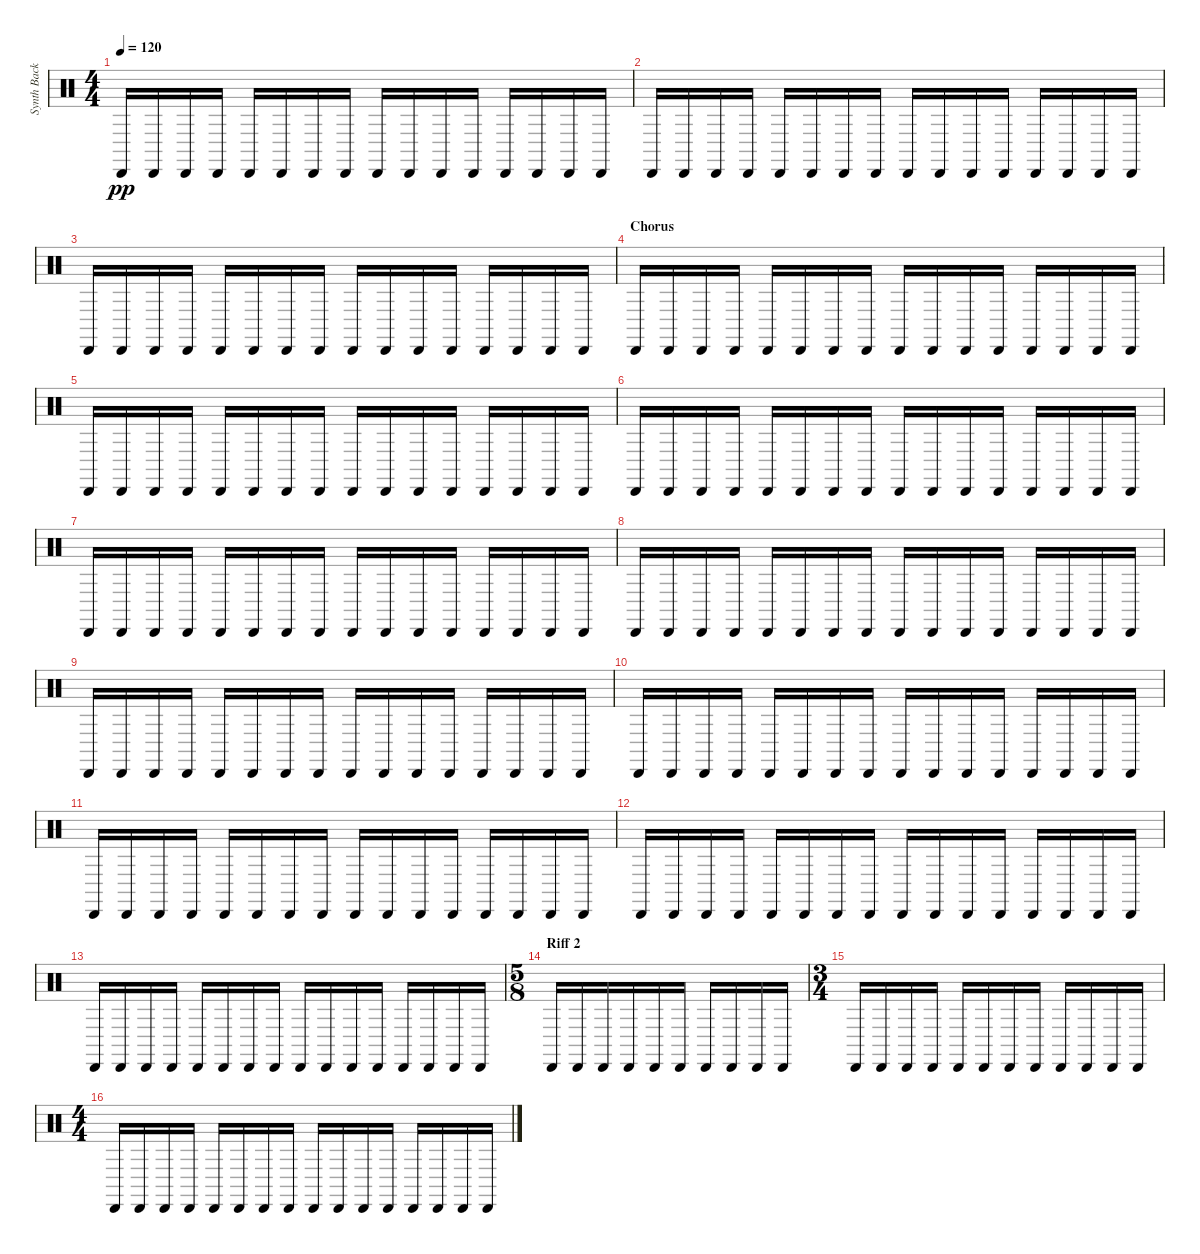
\track ("Synth Background Rhythm" "Synth Back") {instrument percussion}
\staff {score}
\articulation defaults
\ts (4 4)
\tempo 120
\clef neutral
\ks c "Cabasa (hit)".16{dy pp} "Cabasa (hit)".16 "Cabasa (hit)".16 "Cabasa (hit)".16 "Cabasa (hit)".16 "Cabasa (hit)".16 "Cabasa (hit)".16 "Cabasa (hit)".16 "Cabasa (hit)".16 "Cabasa (hit)".16 "Cabasa (hit)".16 "Cabasa (hit)".16 "Cabasa (hit)".16 "Cabasa (hit)".16 "Cabasa (hit)".16 "Cabasa (hit)".16
|
"Cabasa (hit)".16 "Cabasa (hit)".16 "Cabasa (hit)".16 "Cabasa (hit)".16 "Cabasa (hit)".16 "Cabasa (hit)".16 "Cabasa (hit)".16 "Cabasa (hit)".16 "Cabasa (hit)".16 "Cabasa (hit)".16 "Cabasa (hit)".16 "Cabasa (hit)".16 "Cabasa (hit)".16 "Cabasa (hit)".16 "Cabasa (hit)".16 "Cabasa (hit)".16 |
"Cabasa (hit)".16 "Cabasa (hit)".16 "Cabasa (hit)".16 "Cabasa (hit)".16 "Cabasa (hit)".16 "Cabasa (hit)".16 "Cabasa (hit)".16 "Cabasa (hit)".16 "Cabasa (hit)".16 "Cabasa (hit)".16 "Cabasa (hit)".16 "Cabasa (hit)".16 "Cabasa (hit)".16 "Cabasa (hit)".16 "Cabasa (hit)".16 "Cabasa (hit)".16 |
\section ("" "Chorus")
"Cabasa (hit)".16 "Cabasa (hit)".16 "Cabasa (hit)".16 "Cabasa (hit)".16 "Cabasa (hit)".16 "Cabasa (hit)".16 "Cabasa (hit)".16 "Cabasa (hit)".16 "Cabasa (hit)".16 "Cabasa (hit)".16 "Cabasa (hit)".16 "Cabasa (hit)".16 "Cabasa (hit)".16 "Cabasa (hit)".16 "Cabasa (hit)".16 "Cabasa (hit)".16 |
"Cabasa (hit)".16 "Cabasa (hit)".16 "Cabasa (hit)".16 "Cabasa (hit)".16 "Cabasa (hit)".16 "Cabasa (hit)".16 "Cabasa (hit)".16 "Cabasa (hit)".16 "Cabasa (hit)".16 "Cabasa (hit)".16 "Cabasa (hit)".16 "Cabasa (hit)".16 "Cabasa (hit)".16 "Cabasa (hit)".16 "Cabasa (hit)".16 "Cabasa (hit)".16 |
"Cabasa (hit)".16 "Cabasa (hit)".16 "Cabasa (hit)".16 "Cabasa (hit)".16 "Cabasa (hit)".16 "Cabasa (hit)".16 "Cabasa (hit)".16 "Cabasa (hit)".16 "Cabasa (hit)".16 "Cabasa (hit)".16 "Cabasa (hit)".16 "Cabasa (hit)".16 "Cabasa (hit)".16 "Cabasa (hit)".16 "Cabasa (hit)".16 "Cabasa (hit)".16 |
"Cabasa (hit)".16 "Cabasa (hit)".16 "Cabasa (hit)".16 "Cabasa (hit)".16 "Cabasa (hit)".16 "Cabasa (hit)".16 "Cabasa (hit)".16 "Cabasa (hit)".16 "Cabasa (hit)".16 "Cabasa (hit)".16 "Cabasa (hit)".16 "Cabasa (hit)".16 "Cabasa (hit)".16 "Cabasa (hit)".16 "Cabasa (hit)".16 "Cabasa (hit)".16 |
"Cabasa (hit)".16 "Cabasa (hit)".16 "Cabasa (hit)".16 "Cabasa (hit)".16 "Cabasa (hit)".16 "Cabasa (hit)".16 "Cabasa (hit)".16 "Cabasa (hit)".16 "Cabasa (hit)".16 "Cabasa (hit)".16 "Cabasa (hit)".16 "Cabasa (hit)".16 "Cabasa (hit)".16 "Cabasa (hit)".16 "Cabasa (hit)".16 "Cabasa (hit)".16 |
"Cabasa (hit)".16 "Cabasa (hit)".16 "Cabasa (hit)".16 "Cabasa (hit)".16 "Cabasa (hit)".16 "Cabasa (hit)".16 "Cabasa (hit)".16 "Cabasa (hit)".16 "Cabasa (hit)".16 "Cabasa (hit)".16 "Cabasa (hit)".16 "Cabasa (hit)".16 "Cabasa (hit)".16 "Cabasa (hit)".16 "Cabasa (hit)".16 "Cabasa (hit)".16 |
"Cabasa (hit)".16 "Cabasa (hit)".16 "Cabasa (hit)".16 "Cabasa (hit)".16 "Cabasa (hit)".16 "Cabasa (hit)".16 "Cabasa (hit)".16 "Cabasa (hit)".16 "Cabasa (hit)".16 "Cabasa (hit)".16 "Cabasa (hit)".16 "Cabasa (hit)".16 "Cabasa (hit)".16 "Cabasa (hit)".16 "Cabasa (hit)".16 "Cabasa (hit)".16 |
"Cabasa (hit)".16 "Cabasa (hit)".16 "Cabasa (hit)".16 "Cabasa (hit)".16 "Cabasa (hit)".16 "Cabasa (hit)".16 "Cabasa (hit)".16 "Cabasa (hit)".16 "Cabasa (hit)".16 "Cabasa (hit)".16 "Cabasa (hit)".16 "Cabasa (hit)".16 "Cabasa (hit)".16 "Cabasa (hit)".16 "Cabasa (hit)".16 "Cabasa (hit)".16 |
"Cabasa (hit)".16 "Cabasa (hit)".16 "Cabasa (hit)".16 "Cabasa (hit)".16 "Cabasa (hit)".16 "Cabasa (hit)".16 "Cabasa (hit)".16 "Cabasa (hit)".16 "Cabasa (hit)".16 "Cabasa (hit)".16 "Cabasa (hit)".16 "Cabasa (hit)".16 "Cabasa (hit)".16 "Cabasa (hit)".16 "Cabasa (hit)".16 "Cabasa (hit)".16 |
"Cabasa (hit)".16 "Cabasa (hit)".16 "Cabasa (hit)".16 "Cabasa (hit)".16 "Cabasa (hit)".16 "Cabasa (hit)".16 "Cabasa (hit)".16 "Cabasa (hit)".16 "Cabasa (hit)".16 "Cabasa (hit)".16 "Cabasa (hit)".16 "Cabasa (hit)".16 "Cabasa (hit)".16 "Cabasa (hit)".16 "Cabasa (hit)".16 "Cabasa (hit)".16 |
\ts (5 8)
\section ("" "Riff 2")
"Cabasa (hit)".16 "Cabasa (hit)".16 "Cabasa (hit)".16 "Cabasa (hit)".16 "Cabasa (hit)".16 "Cabasa (hit)".16 "Cabasa (hit)".16 "Cabasa (hit)".16 "Cabasa (hit)".16 "Cabasa (hit)".16 |
\ts (3 4)
"Cabasa (hit)".16 "Cabasa (hit)".16 "Cabasa (hit)".16 "Cabasa (hit)".16 "Cabasa (hit)".16 "Cabasa (hit)".16 "Cabasa (hit)".16 "Cabasa (hit)".16 "Cabasa (hit)".16 "Cabasa (hit)".16 "Cabasa (hit)".16 "Cabasa (hit)".16 |
\ts (4 4)
"Cabasa (hit)".16 "Cabasa (hit)".16 "Cabasa (hit)".16 "Cabasa (hit)".16 "Cabasa (hit)".16 "Cabasa (hit)".16 "Cabasa (hit)".16 "Cabasa (hit)".16 "Cabasa (hit)".16 "Cabasa (hit)".16 "Cabasa (hit)".16 "Cabasa (hit)".16 "Cabasa (hit)".16 "Cabasa (hit)".16 "Cabasa (hit)".16 "Cabasa (hit)".16
